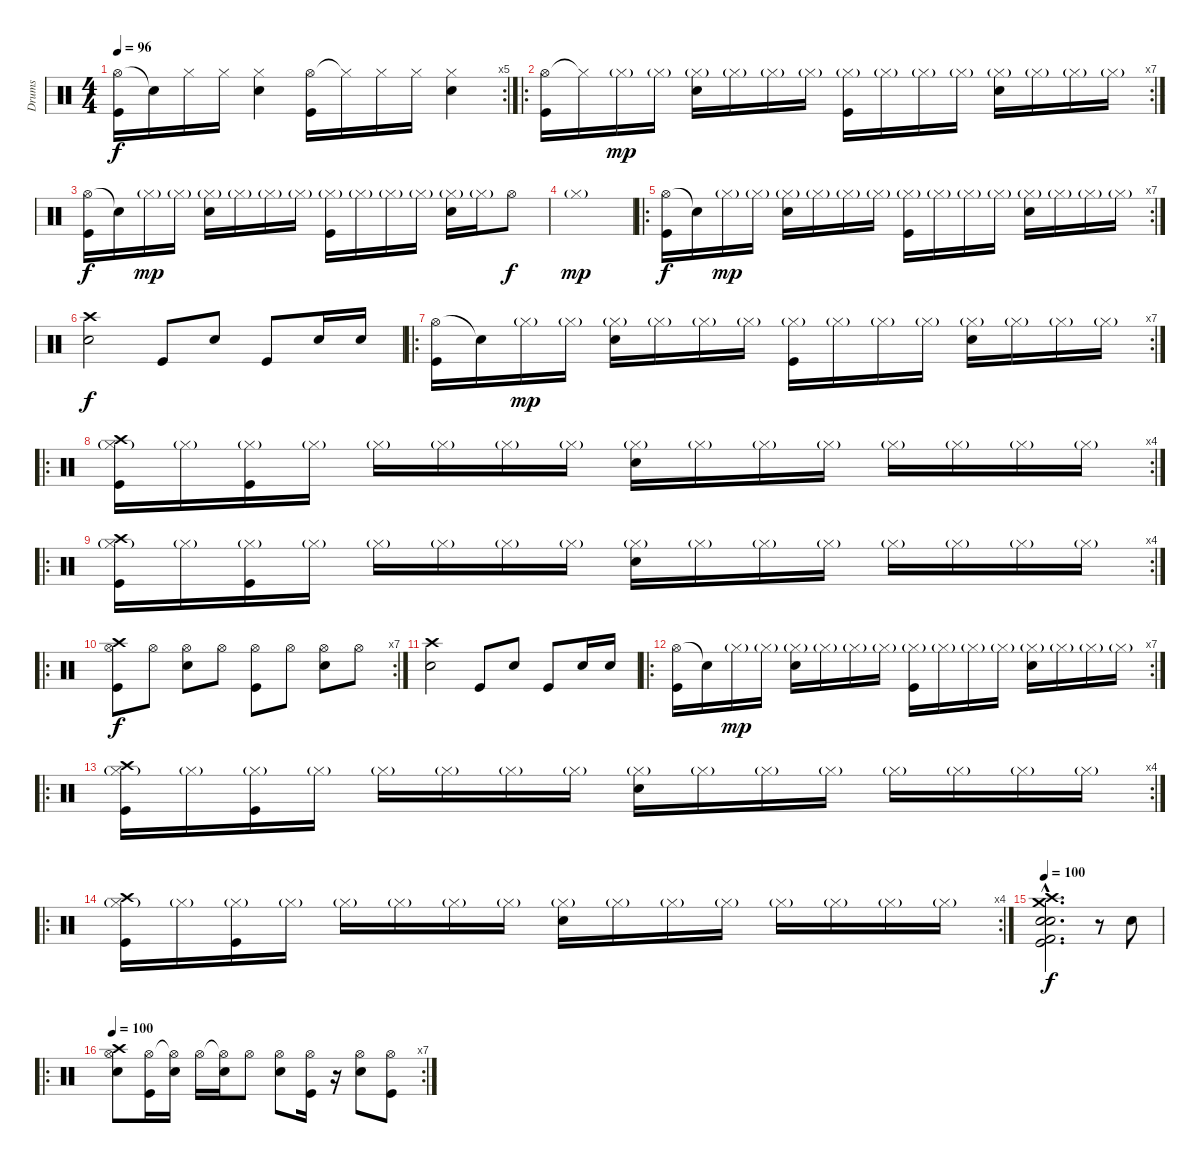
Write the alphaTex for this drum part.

\track ("Drums" "Drums") {instrument percussion}
\staff {score}
\articulation defaults
\rc 5
\ts (4 4)
\tempo 96
\tempo 130
\tempo 96
\clef neutral
\ks c
("Hi-Hat (open)" "Kick (hit)").16{dy f} "Snare (hit)"{t}.16 "Hi-Hat (closed)".16 "Hi-Hat (closed)".16 ("Hi-Hat (closed)" "Electric Snare (hit)").4 ("Hi-Hat (open)" "Kick (hit)").16 "Hi-Hat (closed)"{t}.16 "Hi-Hat (closed)".16 "Hi-Hat (closed)".16 ("Hi-Hat (closed)" "Electric Snare (hit)").4 |
\ro
\rc 7
("Hi-Hat (open)" "Kick (hit)").16 "Hi-Hat (closed)"{t}.16 "Hi-Hat (closed)"{g}.16{dy mp} "Hi-Hat (closed)"{g}.16 ("Hi-Hat (closed)"{g} "Electric Snare (hit)").16 "Hi-Hat (closed)"{g}.16 "Hi-Hat (closed)"{g}.16 "Hi-Hat (closed)"{g}.16 ("Hi-Hat (closed)"{g} "Kick (hit)").16 "Hi-Hat (closed)"{g}.16 "Hi-Hat (closed)"{g}.16 "Hi-Hat (closed)"{g}.16 ("Hi-Hat (closed)"{g} "Electric Snare (hit)").16 "Hi-Hat (closed)"{g}.16 "Hi-Hat (closed)"{g}.16 "Hi-Hat (closed)"{g}.16 |
("Hi-Hat (open)" "Kick (hit)").16{dy f} "Snare (hit)"{t}.16 "Hi-Hat (closed)"{g}.16{dy mp} "Hi-Hat (closed)"{g}.16 ("Hi-Hat (closed)"{g} "Electric Snare (hit)").16 "Hi-Hat (closed)"{g}.16 "Hi-Hat (closed)"{g}.16 "Hi-Hat (closed)"{g}.16 ("Hi-Hat (closed)"{g} "Kick (hit)").16 "Hi-Hat (closed)"{g}.16 "Hi-Hat (closed)"{g}.16 "Hi-Hat (closed)"{g}.16 ("Hi-Hat (closed)"{g} "Electric Snare (hit)").16 "Hi-Hat (closed)"{g}.16 "Hi-Hat (open)".8{dy f} |
"Hi-Hat (closed)"{g}.1{dy mp} |
\ro
\rc 7
("Hi-Hat (open)" "Kick (hit)").16{dy f} "Snare (hit)"{t}.16 "Hi-Hat (closed)"{g}.16{dy mp} "Hi-Hat (closed)"{g}.16 ("Hi-Hat (closed)"{g} "Electric Snare (hit)").16 "Hi-Hat (closed)"{g}.16 "Hi-Hat (closed)"{g}.16 "Hi-Hat (closed)"{g}.16 ("Hi-Hat (closed)"{g} "Kick (hit)").16 "Hi-Hat (closed)"{g}.16 "Hi-Hat (closed)"{g}.16 "Hi-Hat (closed)"{g}.16 ("Hi-Hat (closed)"{g} "Electric Snare (hit)").16 "Hi-Hat (closed)"{g}.16 "Hi-Hat (closed)"{g}.16 "Hi-Hat (closed)"{g}.16 |
("Crash high (hit)" "Electric Snare (hit)").2{dy f} "Kick (hit)".8 "Electric Snare (hit)".8 "Kick (hit)".8 "Electric Snare (hit)".16 "Electric Snare (hit)".16 |
\ro
\rc 7
("Hi-Hat (open)" "Kick (hit)").16 "Snare (hit)"{t}.16 "Hi-Hat (closed)"{g}.16{dy mp} "Hi-Hat (closed)"{g}.16 ("Hi-Hat (closed)"{g} "Electric Snare (hit)").16 "Hi-Hat (closed)"{g}.16 "Hi-Hat (closed)"{g}.16 "Hi-Hat (closed)"{g}.16 ("Hi-Hat (closed)"{g} "Kick (hit)").16 "Hi-Hat (closed)"{g}.16 "Hi-Hat (closed)"{g}.16 "Hi-Hat (closed)"{g}.16 ("Hi-Hat (closed)"{g} "Electric Snare (hit)").16 "Hi-Hat (closed)"{g}.16 "Hi-Hat (closed)"{g}.16 "Hi-Hat (closed)"{g}.16 |
\ro
\rc 4
("Crash high (hit)" "Hi-Hat (closed)"{g} "Kick (hit)").16 "Hi-Hat (closed)"{g}.16 ("Hi-Hat (closed)"{g} "Kick (hit)").16 "Hi-Hat (closed)"{g}.16 "Hi-Hat (closed)"{g}.16 "Hi-Hat (closed)"{g}.16 "Hi-Hat (closed)"{g}.16 "Hi-Hat (closed)"{g}.16 ("Hi-Hat (closed)"{g} "Electric Snare (hit)").16 "Hi-Hat (closed)"{g}.16 "Hi-Hat (closed)"{g}.16 "Hi-Hat (closed)"{g}.16 "Hi-Hat (closed)"{g}.16 "Hi-Hat (closed)"{g}.16 "Hi-Hat (closed)"{g}.16 "Hi-Hat (closed)"{g}.16 |
\ro
\rc 4
("Crash high (hit)" "Hi-Hat (closed)"{g} "Kick (hit)").16 "Hi-Hat (closed)"{g}.16 ("Hi-Hat (closed)"{g} "Kick (hit)").16 "Hi-Hat (closed)"{g}.16 "Hi-Hat (closed)"{g}.16 "Hi-Hat (closed)"{g}.16 "Hi-Hat (closed)"{g}.16 "Hi-Hat (closed)"{g}.16 ("Hi-Hat (closed)"{g} "Electric Snare (hit)").16 "Hi-Hat (closed)"{g}.16 "Hi-Hat (closed)"{g}.16 "Hi-Hat (closed)"{g}.16 "Hi-Hat (closed)"{g}.16 "Hi-Hat (closed)"{g}.16 "Hi-Hat (closed)"{g}.16 "Hi-Hat (closed)"{g}.16 |
\ro
\rc 7
("Crash high (hit)" "Hi-Hat (open)" "Kick (hit)").8{dy f} "Hi-Hat (open)".8 ("Hi-Hat (open)" "Electric Snare (hit)").8 "Hi-Hat (open)".8 ("Hi-Hat (open)" "Kick (hit)").8 "Hi-Hat (open)".8 ("Hi-Hat (open)" "Electric Snare (hit)").8 "Hi-Hat (open)".8 |
("Crash high (hit)" "Electric Snare (hit)").2 "Kick (hit)".8 "Electric Snare (hit)".8 "Kick (hit)".8 "Electric Snare (hit)".16 "Electric Snare (hit)".16 |
\ro
\rc 7
("Hi-Hat (open)" "Kick (hit)").16 "Snare (hit)"{t}.16 "Hi-Hat (closed)"{g}.16{dy mp} "Hi-Hat (closed)"{g}.16 ("Hi-Hat (closed)"{g} "Electric Snare (hit)").16 "Hi-Hat (closed)"{g}.16 "Hi-Hat (closed)"{g}.16 "Hi-Hat (closed)"{g}.16 ("Hi-Hat (closed)"{g} "Kick (hit)").16 "Hi-Hat (closed)"{g}.16 "Hi-Hat (closed)"{g}.16 "Hi-Hat (closed)"{g}.16 ("Hi-Hat (closed)"{g} "Electric Snare (hit)").16 "Hi-Hat (closed)"{g}.16 "Hi-Hat (closed)"{g}.16 "Hi-Hat (closed)"{g}.16 |
\ro
\rc 4
("Crash high (hit)" "Hi-Hat (closed)"{g} "Kick (hit)").16 "Hi-Hat (closed)"{g}.16 ("Hi-Hat (closed)"{g} "Kick (hit)").16 "Hi-Hat (closed)"{g}.16 "Hi-Hat (closed)"{g}.16 "Hi-Hat (closed)"{g}.16 "Hi-Hat (closed)"{g}.16 "Hi-Hat (closed)"{g}.16 ("Hi-Hat (closed)"{g} "Electric Snare (hit)").16 "Hi-Hat (closed)"{g}.16 "Hi-Hat (closed)"{g}.16 "Hi-Hat (closed)"{g}.16 "Hi-Hat (closed)"{g}.16 "Hi-Hat (closed)"{g}.16 "Hi-Hat (closed)"{g}.16 "Hi-Hat (closed)"{g}.16 |
\ro
\rc 4
("Crash high (hit)" "Hi-Hat (closed)"{g} "Kick (hit)").16 "Hi-Hat (closed)"{g}.16 ("Hi-Hat (closed)"{g} "Kick (hit)").16 "Hi-Hat (closed)"{g}.16 "Hi-Hat (closed)"{g}.16 "Hi-Hat (closed)"{g}.16 "Hi-Hat (closed)"{g}.16 "Hi-Hat (closed)"{g}.16 ("Hi-Hat (closed)"{g} "Electric Snare (hit)").16 "Hi-Hat (closed)"{g}.16 "Hi-Hat (closed)"{g}.16 "Hi-Hat (closed)"{g}.16 "Hi-Hat (closed)"{g}.16 "Hi-Hat (closed)"{g}.16 "Hi-Hat (closed)"{g}.16 "Hi-Hat (closed)"{g}.16 |
\tempo 100
("Crash high (hit)"{hac} "Snare (hit) 2"{hac} "Kick (hit) 2"{hac} "Kick (hit)"{hac} "Electric Snare (hit)"{hac} "Crash medium (hit)"{hac}).2{d dy f} r.8 "Snare (hit) 2".8 |
\ro
\rc 7
\tempo 100
("Hi-Hat (open)" "Crash high (hit)" "Snare (hit) 2").8 ("Hi-Hat (open)" "Kick (hit)").16 ("Hi-Hat (open)"{t} "Snare (hit) 2").16 "Hi-Hat (open)".16 ("Hi-Hat (open)"{t} "Snare (hit) 2").16 "Hi-Hat (open)".8 ("Hi-Hat (open)" "Snare (hit) 2").8 ("Hi-Hat (open)" "Kick (hit)").16 r.16 ("Hi-Hat (open)" "Snare (hit) 2").8 ("Hi-Hat (open)" "Kick (hit)").8
